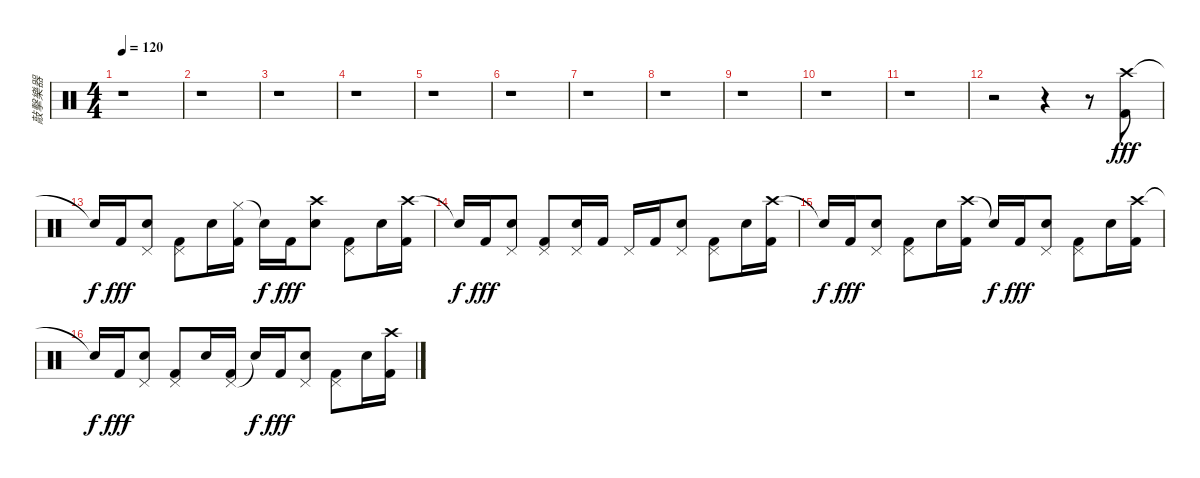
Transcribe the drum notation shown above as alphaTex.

\track ("敲擊樂器" "敲擊樂器") {instrument percussion}
\staff {score}
\articulation defaults
\ts (4 4)
\tempo 120
\clef neutral
\ks c
r.1{dy fff} |
r.1 |
r.1 |
r.1 |
r.1 |
r.1 |
r.1 |
r.1 |
r.1 |
r.1 |
r.1 |
r.2 r.4 r.8 ("Crash high (hit)" "Kick (hit) 2").8 |
"Snare (hit)"{t}.16{dy f} "Kick (hit) 2".16{dy fff} ("Pedal Hi-Hat (hit)" "Snare (hit) 2").8 ("Pedal Hi-Hat (hit)" "Kick (hit) 2").8 "Snare (hit) 2".16 ("Hi-Hat (closed)" "Kick (hit) 2").16 "Snare (hit)"{t}.16{dy f} "Kick (hit) 2".16{dy fff} ("Crash high (hit)" "Snare (hit) 2").8 ("Pedal Hi-Hat (hit)" "Kick (hit) 2").8 "Snare (hit) 2".16 ("Crash high (hit)" "Kick (hit) 2").16 |
"Snare (hit)"{t}.16{dy f} "Kick (hit) 2".16{dy fff} ("Pedal Hi-Hat (hit)" "Snare (hit) 2").8 ("Pedal Hi-Hat (hit)" "Kick (hit) 2").8 ("Pedal Hi-Hat (hit)" "Snare (hit) 2").16 "Kick (hit) 2".16 "Pedal Hi-Hat (hit)".16 "Kick (hit) 2".16 ("Pedal Hi-Hat (hit)" "Snare (hit) 2").8 ("Pedal Hi-Hat (hit)" "Kick (hit) 2").8 "Snare (hit) 2".16 ("Crash high (hit)" "Kick (hit) 2").16 |
"Snare (hit)"{t}.16{dy f} "Kick (hit) 2".16{dy fff} ("Pedal Hi-Hat (hit)" "Snare (hit) 2").8 ("Pedal Hi-Hat (hit)" "Kick (hit) 2").8 "Snare (hit) 2".16 ("Crash high (hit)" "Kick (hit) 2").16 "Snare (hit)"{t}.16{dy f} "Kick (hit) 2".16{dy fff} ("Pedal Hi-Hat (hit)" "Snare (hit) 2").8 ("Pedal Hi-Hat (hit)" "Kick (hit) 2").8 "Snare (hit) 2".16 ("Crash high (hit)" "Kick (hit) 2").16 |
"Snare (hit)"{t}.16{dy f} "Kick (hit) 2".16{dy fff} ("Pedal Hi-Hat (hit)" "Snare (hit) 2").8 ("Pedal Hi-Hat (hit)" "Kick (hit) 2").8 "Snare (hit) 2".16 ("Pedal Hi-Hat (hit)" "Kick (hit) 2").16 "Snare (hit)"{t}.16{dy f} "Kick (hit) 2".16{dy fff} ("Pedal Hi-Hat (hit)" "Snare (hit) 2").8 ("Pedal Hi-Hat (hit)" "Kick (hit) 2").8 "Snare (hit) 2".16 ("Crash high (hit)" "Kick (hit) 2").16
